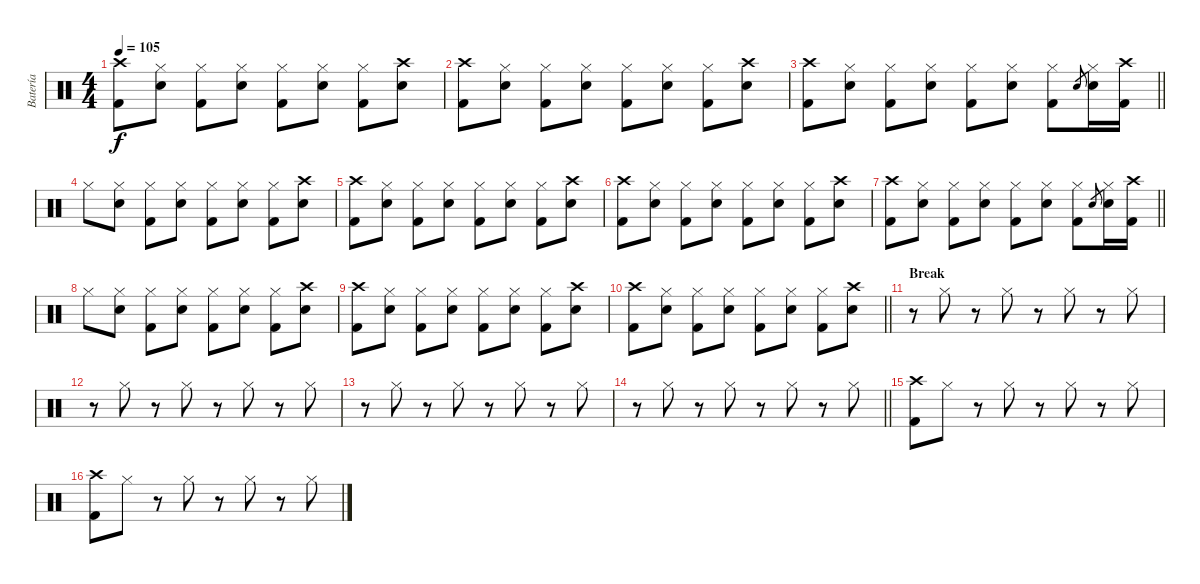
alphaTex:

\track ("Batería" "Batería") {instrument percussion}
\staff {score}
\articulation defaults
\ts (4 4)
\tempo 105
\clef neutral
\ks c
("Crash high (hit)" "Kick (hit) 2").8{dy f} ("Hi-Hat (closed)" "Snare (hit) 2").8 ("Hi-Hat (closed)" "Kick (hit) 2").8 ("Hi-Hat (closed)" "Snare (hit) 2").8 ("Hi-Hat (closed)" "Kick (hit) 2").8 ("Hi-Hat (closed)" "Snare (hit) 2").8 ("Hi-Hat (closed)" "Kick (hit) 2").8 ("Crash high (hit)" "Snare (hit) 2").8 |
("Crash high (hit)" "Kick (hit) 2").8 ("Hi-Hat (closed)" "Snare (hit) 2").8 ("Hi-Hat (closed)" "Kick (hit) 2").8 ("Hi-Hat (closed)" "Snare (hit) 2").8 ("Hi-Hat (closed)" "Kick (hit) 2").8 ("Hi-Hat (closed)" "Snare (hit) 2").8 ("Hi-Hat (closed)" "Kick (hit) 2").8 ("Crash high (hit)" "Snare (hit) 2").8 |
\barLineRight lightlight
("Crash high (hit)" "Kick (hit) 2").8 ("Hi-Hat (closed)" "Snare (hit) 2").8 ("Hi-Hat (closed)" "Kick (hit) 2").8 ("Hi-Hat (closed)" "Snare (hit) 2").8 ("Hi-Hat (closed)" "Kick (hit) 2").8 ("Hi-Hat (closed)" "Snare (hit) 2").8 ("Hi-Hat (closed)" "Kick (hit) 2").8 "Snare (hit) 2".8{gr} ("Hi-Hat (closed)" "Snare (hit) 2").16 ("Crash high (hit)" "Kick (hit) 2").16 |
"Hi-Hat (closed)".8 ("Hi-Hat (closed)" "Snare (hit) 2").8 ("Hi-Hat (closed)" "Kick (hit) 2").8 ("Hi-Hat (closed)" "Snare (hit) 2").8 ("Hi-Hat (closed)" "Kick (hit) 2").8 ("Hi-Hat (closed)" "Snare (hit) 2").8 ("Hi-Hat (closed)" "Kick (hit) 2").8 ("Crash high (hit)" "Snare (hit) 2").8 |
("Crash high (hit)" "Kick (hit) 2").8 ("Hi-Hat (closed)" "Snare (hit) 2").8 ("Hi-Hat (closed)" "Kick (hit) 2").8 ("Hi-Hat (closed)" "Snare (hit) 2").8 ("Hi-Hat (closed)" "Kick (hit) 2").8 ("Hi-Hat (closed)" "Snare (hit) 2").8 ("Hi-Hat (closed)" "Kick (hit) 2").8 ("Crash high (hit)" "Snare (hit) 2").8 |
("Crash high (hit)" "Kick (hit) 2").8 ("Hi-Hat (closed)" "Snare (hit) 2").8 ("Hi-Hat (closed)" "Kick (hit) 2").8 ("Hi-Hat (closed)" "Snare (hit) 2").8 ("Hi-Hat (closed)" "Kick (hit) 2").8 ("Hi-Hat (closed)" "Snare (hit) 2").8 ("Hi-Hat (closed)" "Kick (hit) 2").8 ("Crash high (hit)" "Snare (hit) 2").8 |
\barLineRight lightlight
("Crash high (hit)" "Kick (hit) 2").8 ("Hi-Hat (closed)" "Snare (hit) 2").8 ("Hi-Hat (closed)" "Kick (hit) 2").8 ("Hi-Hat (closed)" "Snare (hit) 2").8 ("Hi-Hat (closed)" "Kick (hit) 2").8 ("Hi-Hat (closed)" "Snare (hit) 2").8 ("Hi-Hat (closed)" "Kick (hit) 2").8 "Snare (hit) 2".8{gr} ("Hi-Hat (closed)" "Snare (hit) 2").16 ("Crash high (hit)" "Kick (hit) 2").16 |
"Hi-Hat (closed)".8 ("Hi-Hat (closed)" "Snare (hit) 2").8 ("Hi-Hat (closed)" "Kick (hit) 2").8 ("Hi-Hat (closed)" "Snare (hit) 2").8 ("Hi-Hat (closed)" "Kick (hit) 2").8 ("Hi-Hat (closed)" "Snare (hit) 2").8 ("Hi-Hat (closed)" "Kick (hit) 2").8 ("Crash high (hit)" "Snare (hit) 2").8 |
("Crash high (hit)" "Kick (hit) 2").8 ("Hi-Hat (closed)" "Snare (hit) 2").8 ("Hi-Hat (closed)" "Kick (hit) 2").8 ("Hi-Hat (closed)" "Snare (hit) 2").8 ("Hi-Hat (closed)" "Kick (hit) 2").8 ("Hi-Hat (closed)" "Snare (hit) 2").8 ("Hi-Hat (closed)" "Kick (hit) 2").8 ("Crash high (hit)" "Snare (hit) 2").8 |
\barLineRight lightlight
("Crash high (hit)" "Kick (hit) 2").8 ("Hi-Hat (closed)" "Snare (hit) 2").8 ("Hi-Hat (closed)" "Kick (hit) 2").8 ("Hi-Hat (closed)" "Snare (hit) 2").8 ("Hi-Hat (closed)" "Kick (hit) 2").8 ("Hi-Hat (closed)" "Snare (hit) 2").8 ("Hi-Hat (closed)" "Kick (hit) 2").8 ("Crash high (hit)" "Snare (hit) 2").8 |
\section ("" "Break")
r.8 "Hi-Hat (closed)".8 r.8 "Hi-Hat (closed)".8 r.8 "Hi-Hat (closed)".8 r.8 "Hi-Hat (closed)".8 |
r.8 "Hi-Hat (closed)".8 r.8 "Hi-Hat (closed)".8 r.8 "Hi-Hat (closed)".8 r.8 "Hi-Hat (closed)".8 |
r.8 "Hi-Hat (closed)".8 r.8 "Hi-Hat (closed)".8 r.8 "Hi-Hat (closed)".8 r.8 "Hi-Hat (closed)".8 |
\barLineRight lightlight
r.8 "Hi-Hat (closed)".8 r.8 "Hi-Hat (closed)".8 r.8 "Hi-Hat (closed)".8 r.8 "Hi-Hat (closed)".8 |
("Crash high (hit)" "Kick (hit) 2").8 "Hi-Hat (closed)".8 r.8 "Hi-Hat (closed)".8 r.8 "Hi-Hat (closed)".8 r.8 "Hi-Hat (closed)".8 |
("Kick (hit) 2" "Crash high (hit)").8 "Hi-Hat (closed)".8 r.8 "Hi-Hat (closed)".8 r.8 "Hi-Hat (closed)".8 r.8 "Hi-Hat (closed)".8
